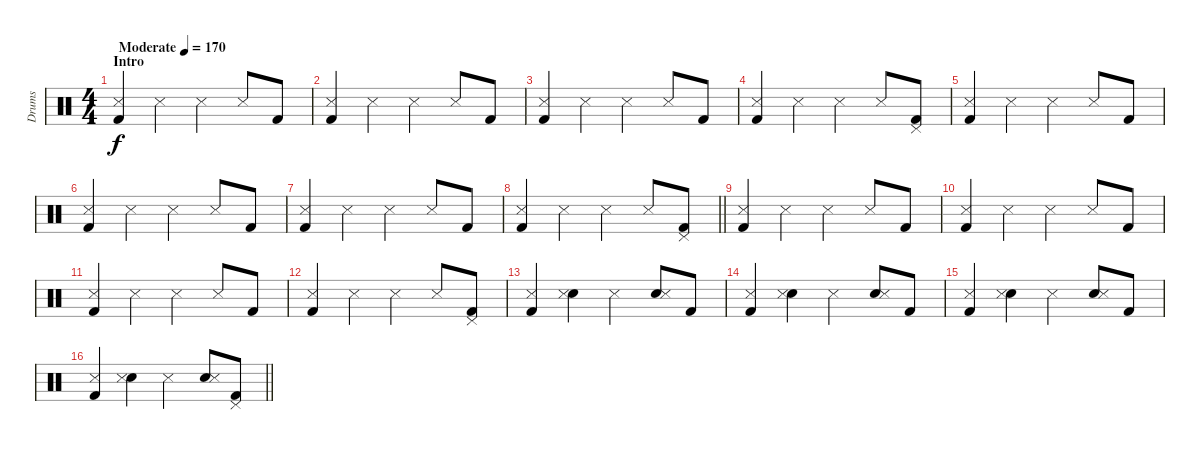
\track ("Drums" "Drums") {instrument percussion}
\staff {score}
\articulation defaults
\ts (4 4)
\section ("" "Intro")
\tempo (170 "Moderate")
\clef neutral
\ks c
("Snare (side stick) 3" "Kick (hit) 2").4{dy f} "Snare (side stick) 3".4 "Snare (side stick) 3".4 "Snare (side stick) 3".8 "Kick (hit) 2".8 |
("Snare (side stick) 3" "Kick (hit) 2").4 "Snare (side stick) 3".4 "Snare (side stick) 3".4 "Snare (side stick) 3".8 "Kick (hit) 2".8 |
("Snare (side stick) 3" "Kick (hit) 2").4 "Snare (side stick) 3".4 "Snare (side stick) 3".4 "Snare (side stick) 3".8 "Kick (hit) 2".8 |
("Snare (side stick) 3" "Kick (hit) 2").4 "Snare (side stick) 3".4 "Snare (side stick) 3".4 "Snare (side stick) 3".8 ("Pedal Hi-Hat (hit)" "Kick (hit) 2").8 |
("Snare (side stick) 3" "Kick (hit) 2").4 "Snare (side stick) 3".4 "Snare (side stick) 3".4 "Snare (side stick) 3".8 "Kick (hit) 2".8 |
("Snare (side stick) 3" "Kick (hit) 2").4 "Snare (side stick) 3".4 "Snare (side stick) 3".4 "Snare (side stick) 3".8 "Kick (hit) 2".8 |
("Snare (side stick) 3" "Kick (hit) 2").4 "Snare (side stick) 3".4 "Snare (side stick) 3".4 "Snare (side stick) 3".8 "Kick (hit) 2".8 |
\barLineRight lightlight
("Snare (side stick) 3" "Kick (hit) 2").4 "Snare (side stick) 3".4 "Snare (side stick) 3".4 "Snare (side stick) 3".8 ("Pedal Hi-Hat (hit)" "Kick (hit) 2").8 |
("Snare (side stick) 3" "Kick (hit) 2").4 "Snare (side stick) 3".4 "Snare (side stick) 3".4 "Snare (side stick) 3".8 "Kick (hit) 2".8 |
("Snare (side stick) 3" "Kick (hit) 2").4 "Snare (side stick) 3".4 "Snare (side stick) 3".4 "Snare (side stick) 3".8 "Kick (hit) 2".8 |
("Snare (side stick) 3" "Kick (hit) 2").4 "Snare (side stick) 3".4 "Snare (side stick) 3".4 "Snare (side stick) 3".8 "Kick (hit) 2".8 |
("Snare (side stick) 3" "Kick (hit) 2").4 "Snare (side stick) 3".4 "Snare (side stick) 3".4 "Snare (side stick) 3".8 ("Pedal Hi-Hat (hit)" "Kick (hit) 2").8 |
("Snare (side stick) 3" "Kick (hit) 2").4 ("Snare (hit) 2" "Snare (side stick) 3").4 "Snare (side stick) 3".4 ("Snare (hit) 2" "Snare (side stick) 3").8 "Kick (hit) 2".8 |
("Snare (side stick) 3" "Kick (hit) 2").4 ("Snare (hit) 2" "Snare (side stick) 3").4 "Snare (side stick) 3".4 ("Snare (hit) 2" "Snare (side stick) 3").8 "Kick (hit) 2".8 |
("Snare (side stick) 3" "Kick (hit) 2").4 ("Snare (hit) 2" "Snare (side stick) 3").4 "Snare (side stick) 3".4 ("Snare (hit) 2" "Snare (side stick) 3").8 "Kick (hit) 2".8 |
\barLineRight lightlight
("Snare (side stick) 3" "Kick (hit) 2").4 ("Snare (hit) 2" "Snare (side stick) 3").4 "Snare (side stick) 3".4 ("Snare (hit) 2" "Snare (side stick) 3").8 ("Pedal Hi-Hat (hit)" "Kick (hit) 2").8
